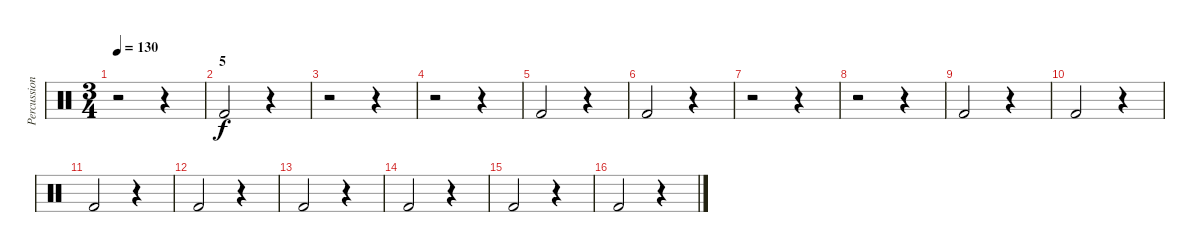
\track ("Percussions" "Percussion") {instrument percussion}
\staff {score}
\articulation defaults
\ts (3 4)
\tempo 130
\clef neutral
\ks c
r.2{dy f} r.4 |
\section ("" "5")
"Kick (hit) 2".2 r.4 |
r.2 r.4 |
r.2 r.4 |
"Kick (hit) 2".2 r.4 |
"Kick (hit) 2".2 r.4 |
r.2 r.4 |
r.2 r.4 |
"Kick (hit) 2".2 r.4 |
"Kick (hit) 2".2 r.4 |
"Kick (hit) 2".2 r.4 |
"Kick (hit) 2".2 r.4 |
"Kick (hit) 2".2 r.4 |
"Kick (hit) 2".2 r.4 |
"Kick (hit) 2".2 r.4 |
"Kick (hit) 2".2 r.4
